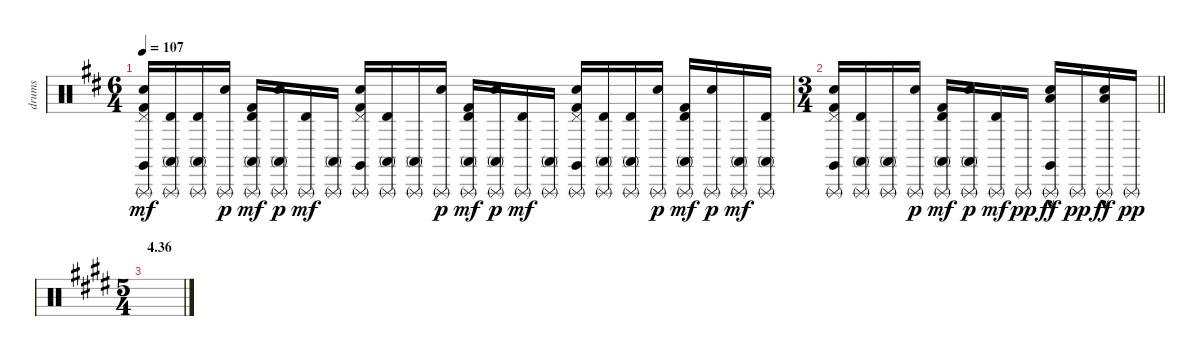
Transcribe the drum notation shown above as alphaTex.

\track ("drums" "drums") {instrument percussion}
\staff {score}
\articulation defaults
\ts (6 4)
\tempo 107
\clef neutral
\ks d
("Triangle (rnute)" "Claves (hit)" "Pedal Hi-Hat (hit)" "Electric Snare (hit)" "Kick (hit) 2").16{dy mf} ("Triangle (rnute)" "Timbale high (hit)" "Conga high (mute)").16 ("Triangle (rnute)" "Timbale high (hit)" "Conga high (mute)").16 ("Triangle (rnute)" "Electric Snare (hit)").16{dy p} ("Triangle (rnute)" "Timbale high (hit)" "Conga high (mute)" "Kick (hit) 2").16{dy mf} ("Triangle (rnute)" "Conga high (mute)" "Electric Snare (hit)").16{dy p} ("Triangle (rnute)" "Timbale high (hit)").16{dy mf} ("Triangle (rnute)" "Conga high (mute)").16 ("Triangle (rnute)" "Claves (hit)" "Pedal Hi-Hat (hit)" "Electric Snare (hit)" "Kick (hit) 2").16 ("Triangle (rnute)" "Timbale high (hit)" "Conga high (mute)").16 ("Triangle (rnute)" "Conga high (mute)").16 ("Triangle (rnute)" "Electric Snare (hit)").16{dy p} ("Triangle (rnute)" "Timbale high (hit)" "Conga high (mute)" "Kick (hit) 2").16{dy mf} ("Triangle (rnute)" "Conga high (mute)" "Electric Snare (hit)").16{dy p} ("Triangle (rnute)" "Timbale high (hit)").16{dy mf} ("Triangle (rnute)" "Conga high (mute)").16 ("Triangle (rnute)" "Claves (hit)" "Pedal Hi-Hat (hit)" "Electric Snare (hit)" "Kick (hit) 2").16 ("Triangle (rnute)" "Timbale high (hit)" "Conga high (mute)").16 ("Triangle (rnute)" "Timbale high (hit)" "Conga high (mute)").16 ("Triangle (rnute)" "Electric Snare (hit)").16{dy p} ("Triangle (rnute)" "Timbale high (hit)" "Conga high (mute)" "Kick (hit) 2").16{dy mf} ("Triangle (rnute)" "Electric Snare (hit)").16{dy p} ("Triangle (rnute)" "Conga high (mute)").16{dy mf} ("Triangle (rnute)" "Timbale high (hit)" "Conga high (mute)").16 |
\ts (3 4)
\barLineRight lightlight
("Triangle (rnute)" "Claves (hit)" "Pedal Hi-Hat (hit)" "Electric Snare (hit)" "Kick (hit) 2").16 ("Triangle (rnute)" "Timbale high (hit)" "Conga high (mute)").16 ("Triangle (rnute)" "Conga high (mute)").16 ("Triangle (rnute)" "Electric Snare (hit)").16{dy p} ("Triangle (rnute)" "Timbale high (hit)" "Conga high (mute)" "Kick (hit) 2").16{dy mf} ("Triangle (rnute)" "Conga high (mute)" "Electric Snare (hit)").16{dy p} ("Triangle (rnute)" "Timbale high (hit)").16{dy mf} "Triangle (rnute)".16{dy pp} ("Triangle (rnute)" "Claves (hit)" "Low Floor Tom (hit)" "Electric Snare (hit)"{hac}).16{dy ff} "Triangle (rnute)".16{dy pp} ("Triangle (rnute)" "Low Floor Tom (hit)" "Electric Snare (hit)"{hac}).16{dy ff} "Triangle (rnute)".16{dy pp} |
\ts (5 4)
\section ("" "4.36")
\ks e
